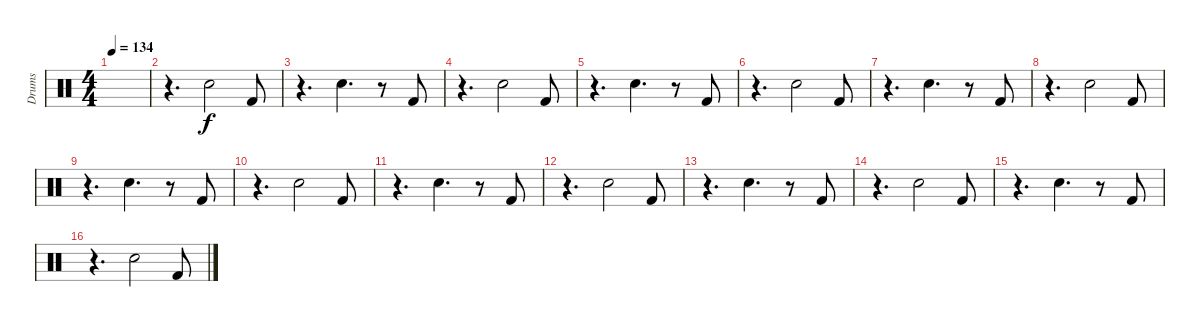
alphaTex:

\track ("Drums" "Drums") {instrument percussion}
\staff {score}
\articulation defaults
\ts (4 4)
\tempo 134
\clef neutral
\ks c
|
r.4{d} "Electric Snare (hit)".2 "Kick (hit) 2".8 |
r.4{d} "Electric Snare (hit)".4{d} r.8 "Kick (hit) 2".8 |
r.4{d} "Electric Snare (hit)".2 "Kick (hit) 2".8 |
r.4{d} "Electric Snare (hit)".4{d} r.8 "Kick (hit) 2".8 |
r.4{d} "Electric Snare (hit)".2 "Kick (hit) 2".8 |
r.4{d} "Electric Snare (hit)".4{d} r.8 "Kick (hit) 2".8 |
r.4{d} "Electric Snare (hit)".2 "Kick (hit) 2".8 |
r.4{d} "Electric Snare (hit)".4{d} r.8 "Kick (hit) 2".8 |
r.4{d} "Electric Snare (hit)".2 "Kick (hit) 2".8 |
r.4{d} "Electric Snare (hit)".4{d} r.8 "Kick (hit) 2".8 |
r.4{d} "Electric Snare (hit)".2 "Kick (hit) 2".8 |
r.4{d} "Electric Snare (hit)".4{d} r.8 "Kick (hit) 2".8 |
r.4{d} "Electric Snare (hit)".2 "Kick (hit) 2".8 |
r.4{d} "Electric Snare (hit)".4{d} r.8 "Kick (hit) 2".8 |
r.4{d} "Electric Snare (hit)".2 "Kick (hit) 2".8
